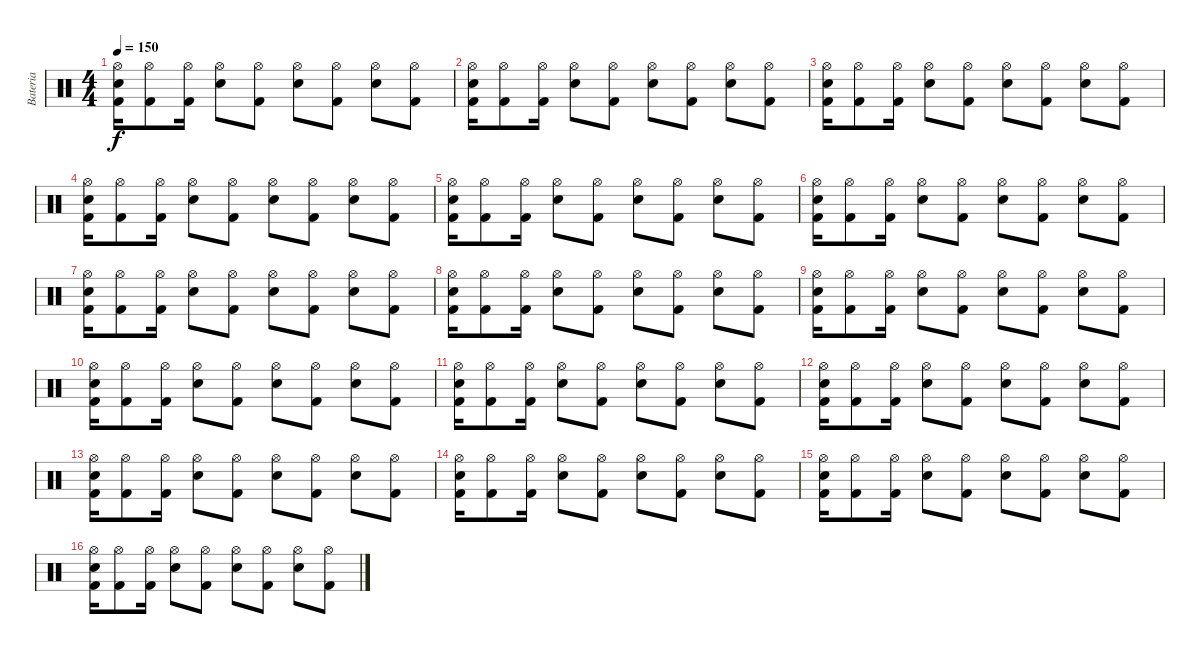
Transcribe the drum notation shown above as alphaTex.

\track ("Bateria" "Bateria") {instrument percussion}
\staff {score}
\articulation defaults
\ts (4 4)
\tempo 150
\clef neutral
\ks c
("Hi-Hat (open)" "Electric Snare (hit)" "Kick (hit) 2").16{dy f} ("Hi-Hat (open)" "Kick (hit) 2").8 ("Hi-Hat (open)" "Kick (hit) 2").16 ("Hi-Hat (open)" "Electric Snare (hit)").8 ("Hi-Hat (open)" "Kick (hit) 2").8 ("Hi-Hat (open)" "Electric Snare (hit)").8 ("Hi-Hat (open)" "Kick (hit) 2").8 ("Hi-Hat (open)" "Electric Snare (hit)").8 ("Hi-Hat (open)" "Kick (hit) 2").8 |
("Hi-Hat (open)" "Electric Snare (hit)" "Kick (hit) 2").16 ("Hi-Hat (open)" "Kick (hit) 2").8 ("Hi-Hat (open)" "Kick (hit) 2").16 ("Hi-Hat (open)" "Electric Snare (hit)").8 ("Hi-Hat (open)" "Kick (hit) 2").8 ("Hi-Hat (open)" "Electric Snare (hit)").8 ("Hi-Hat (open)" "Kick (hit) 2").8 ("Hi-Hat (open)" "Electric Snare (hit)").8 ("Hi-Hat (open)" "Kick (hit) 2").8 |
("Hi-Hat (open)" "Electric Snare (hit)" "Kick (hit) 2").16 ("Hi-Hat (open)" "Kick (hit) 2").8 ("Hi-Hat (open)" "Kick (hit) 2").16 ("Hi-Hat (open)" "Electric Snare (hit)").8 ("Hi-Hat (open)" "Kick (hit) 2").8 ("Hi-Hat (open)" "Electric Snare (hit)").8 ("Hi-Hat (open)" "Kick (hit) 2").8 ("Hi-Hat (open)" "Electric Snare (hit)").8 ("Hi-Hat (open)" "Kick (hit) 2").8 |
("Hi-Hat (open)" "Electric Snare (hit)" "Kick (hit) 2").16 ("Hi-Hat (open)" "Kick (hit) 2").8 ("Hi-Hat (open)" "Kick (hit) 2").16 ("Hi-Hat (open)" "Electric Snare (hit)").8 ("Hi-Hat (open)" "Kick (hit) 2").8 ("Hi-Hat (open)" "Electric Snare (hit)").8 ("Hi-Hat (open)" "Kick (hit) 2").8 ("Hi-Hat (open)" "Electric Snare (hit)").8 ("Hi-Hat (open)" "Kick (hit) 2").8 |
("Hi-Hat (open)" "Electric Snare (hit)" "Kick (hit) 2").16 ("Hi-Hat (open)" "Kick (hit) 2").8 ("Hi-Hat (open)" "Kick (hit) 2").16 ("Hi-Hat (open)" "Electric Snare (hit)").8 ("Hi-Hat (open)" "Kick (hit) 2").8 ("Hi-Hat (open)" "Electric Snare (hit)").8 ("Hi-Hat (open)" "Kick (hit) 2").8 ("Hi-Hat (open)" "Electric Snare (hit)").8 ("Hi-Hat (open)" "Kick (hit) 2").8 |
("Hi-Hat (open)" "Electric Snare (hit)" "Kick (hit) 2").16 ("Hi-Hat (open)" "Kick (hit) 2").8 ("Hi-Hat (open)" "Kick (hit) 2").16 ("Hi-Hat (open)" "Electric Snare (hit)").8 ("Hi-Hat (open)" "Kick (hit) 2").8 ("Hi-Hat (open)" "Electric Snare (hit)").8 ("Hi-Hat (open)" "Kick (hit) 2").8 ("Hi-Hat (open)" "Electric Snare (hit)").8 ("Hi-Hat (open)" "Kick (hit) 2").8 |
("Hi-Hat (open)" "Electric Snare (hit)" "Kick (hit) 2").16 ("Hi-Hat (open)" "Kick (hit) 2").8 ("Hi-Hat (open)" "Kick (hit) 2").16 ("Hi-Hat (open)" "Electric Snare (hit)").8 ("Hi-Hat (open)" "Kick (hit) 2").8 ("Hi-Hat (open)" "Electric Snare (hit)").8 ("Hi-Hat (open)" "Kick (hit) 2").8 ("Hi-Hat (open)" "Electric Snare (hit)").8 ("Hi-Hat (open)" "Kick (hit) 2").8 |
("Hi-Hat (open)" "Electric Snare (hit)" "Kick (hit) 2").16 ("Hi-Hat (open)" "Kick (hit) 2").8 ("Hi-Hat (open)" "Kick (hit) 2").16 ("Hi-Hat (open)" "Electric Snare (hit)").8 ("Hi-Hat (open)" "Kick (hit) 2").8 ("Hi-Hat (open)" "Electric Snare (hit)").8 ("Hi-Hat (open)" "Kick (hit) 2").8 ("Hi-Hat (open)" "Electric Snare (hit)").8 ("Hi-Hat (open)" "Kick (hit) 2").8 |
("Hi-Hat (open)" "Electric Snare (hit)" "Kick (hit) 2").16 ("Hi-Hat (open)" "Kick (hit) 2").8 ("Hi-Hat (open)" "Kick (hit) 2").16 ("Hi-Hat (open)" "Electric Snare (hit)").8 ("Hi-Hat (open)" "Kick (hit) 2").8 ("Hi-Hat (open)" "Electric Snare (hit)").8 ("Hi-Hat (open)" "Kick (hit) 2").8 ("Hi-Hat (open)" "Electric Snare (hit)").8 ("Hi-Hat (open)" "Kick (hit) 2").8 |
("Hi-Hat (open)" "Electric Snare (hit)" "Kick (hit) 2").16 ("Hi-Hat (open)" "Kick (hit) 2").8 ("Hi-Hat (open)" "Kick (hit) 2").16 ("Hi-Hat (open)" "Electric Snare (hit)").8 ("Hi-Hat (open)" "Kick (hit) 2").8 ("Hi-Hat (open)" "Electric Snare (hit)").8 ("Hi-Hat (open)" "Kick (hit) 2").8 ("Hi-Hat (open)" "Electric Snare (hit)").8 ("Hi-Hat (open)" "Kick (hit) 2").8 |
("Hi-Hat (open)" "Electric Snare (hit)" "Kick (hit) 2").16 ("Hi-Hat (open)" "Kick (hit) 2").8 ("Hi-Hat (open)" "Kick (hit) 2").16 ("Hi-Hat (open)" "Electric Snare (hit)").8 ("Hi-Hat (open)" "Kick (hit) 2").8 ("Hi-Hat (open)" "Electric Snare (hit)").8 ("Hi-Hat (open)" "Kick (hit) 2").8 ("Hi-Hat (open)" "Electric Snare (hit)").8 ("Hi-Hat (open)" "Kick (hit) 2").8 |
("Hi-Hat (open)" "Electric Snare (hit)" "Kick (hit) 2").16 ("Hi-Hat (open)" "Kick (hit) 2").8 ("Hi-Hat (open)" "Kick (hit) 2").16 ("Hi-Hat (open)" "Electric Snare (hit)").8 ("Hi-Hat (open)" "Kick (hit) 2").8 ("Hi-Hat (open)" "Electric Snare (hit)").8 ("Hi-Hat (open)" "Kick (hit) 2").8 ("Hi-Hat (open)" "Electric Snare (hit)").8 ("Hi-Hat (open)" "Kick (hit) 2").8 |
("Hi-Hat (open)" "Electric Snare (hit)" "Kick (hit) 2").16 ("Hi-Hat (open)" "Kick (hit) 2").8 ("Hi-Hat (open)" "Kick (hit) 2").16 ("Hi-Hat (open)" "Electric Snare (hit)").8 ("Hi-Hat (open)" "Kick (hit) 2").8 ("Hi-Hat (open)" "Electric Snare (hit)").8 ("Hi-Hat (open)" "Kick (hit) 2").8 ("Hi-Hat (open)" "Electric Snare (hit)").8 ("Hi-Hat (open)" "Kick (hit) 2").8 |
("Hi-Hat (open)" "Electric Snare (hit)" "Kick (hit) 2").16 ("Hi-Hat (open)" "Kick (hit) 2").8 ("Hi-Hat (open)" "Kick (hit) 2").16 ("Hi-Hat (open)" "Electric Snare (hit)").8 ("Hi-Hat (open)" "Kick (hit) 2").8 ("Hi-Hat (open)" "Electric Snare (hit)").8 ("Hi-Hat (open)" "Kick (hit) 2").8 ("Hi-Hat (open)" "Electric Snare (hit)").8 ("Hi-Hat (open)" "Kick (hit) 2").8 |
("Hi-Hat (open)" "Electric Snare (hit)" "Kick (hit) 2").16 ("Hi-Hat (open)" "Kick (hit) 2").8 ("Hi-Hat (open)" "Kick (hit) 2").16 ("Hi-Hat (open)" "Electric Snare (hit)").8 ("Hi-Hat (open)" "Kick (hit) 2").8 ("Hi-Hat (open)" "Electric Snare (hit)").8 ("Hi-Hat (open)" "Kick (hit) 2").8 ("Hi-Hat (open)" "Electric Snare (hit)").8 ("Hi-Hat (open)" "Kick (hit) 2").8 |
("Hi-Hat (open)" "Electric Snare (hit)" "Kick (hit) 2").16 ("Hi-Hat (open)" "Kick (hit) 2").8 ("Hi-Hat (open)" "Kick (hit) 2").16 ("Hi-Hat (open)" "Electric Snare (hit)").8 ("Hi-Hat (open)" "Kick (hit) 2").8 ("Hi-Hat (open)" "Electric Snare (hit)").8 ("Hi-Hat (open)" "Kick (hit) 2").8 ("Hi-Hat (open)" "Electric Snare (hit)").8 ("Hi-Hat (open)" "Kick (hit) 2").8
